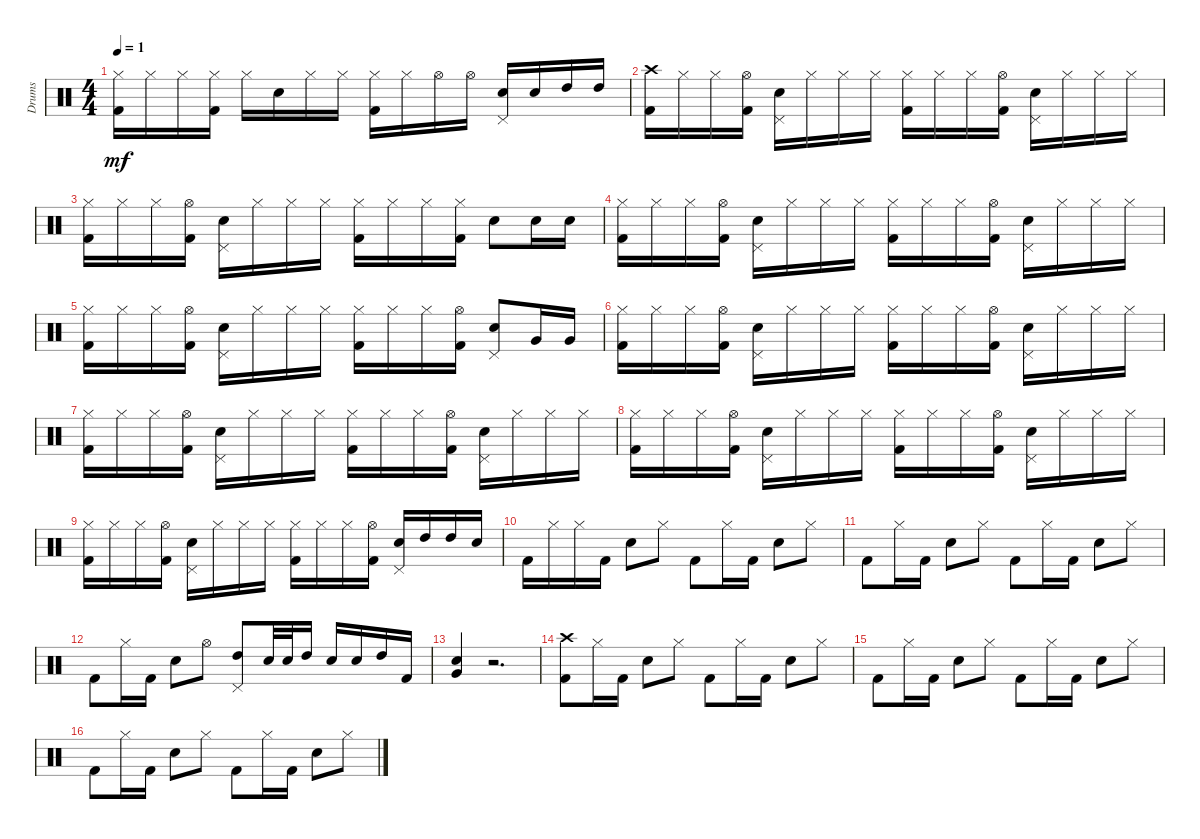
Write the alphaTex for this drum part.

\track ("Drums" "Drums") {instrument percussion}
\staff {score}
\articulation defaults
\ts (4 4)
\tempo 1
\clef neutral
\ks c
("Hi-Hat (closed)" "Kick (hit) 2").16{dy mf} "Hi-Hat (closed)".16 "Hi-Hat (closed)".16 ("Hi-Hat (closed)" "Kick (hit) 2").16 "Hi-Hat (closed)".16 "Snare (hit) 2".16 "Hi-Hat (closed)".16 "Hi-Hat (closed)".16 ("Hi-Hat (closed)" "Kick (hit) 2").16 "Hi-Hat (closed)".16 "Hi-Hat (open)".16 "Hi-Hat (open)".16 ("Snare (hit) 2" "Pedal Hi-Hat (hit)").16 "Snare (hit) 2".16 "High Tom (hit)".16 "High Tom (hit)".16 |
("Kick (hit) 2" "Crash high (hit)").16 "Hi-Hat (closed)".16 "Hi-Hat (closed)".16 ("Kick (hit) 2" "Hi-Hat (open)").16 ("Snare (hit) 2" "Pedal Hi-Hat (hit)").16 "Hi-Hat (closed)".16 "Hi-Hat (closed)".16 "Hi-Hat (closed)".16 ("Hi-Hat (closed)" "Kick (hit) 2").16 "Hi-Hat (closed)".16 "Hi-Hat (closed)".16 ("Hi-Hat (open)" "Kick (hit) 2").16 ("Snare (hit) 2" "Pedal Hi-Hat (hit)").16 "Hi-Hat (closed)".16 "Hi-Hat (closed)".16 "Hi-Hat (closed)".16 |
("Kick (hit) 2" "Hi-Hat (closed)").16 "Hi-Hat (closed)".16 "Hi-Hat (closed)".16 ("Kick (hit) 2" "Hi-Hat (open)").16 ("Snare (hit) 2" "Pedal Hi-Hat (hit)").16 "Hi-Hat (closed)".16 "Hi-Hat (closed)".16 "Hi-Hat (closed)".16 ("Hi-Hat (closed)" "Kick (hit) 2").16 "Hi-Hat (closed)".16 "Hi-Hat (closed)".16 ("Hi-Hat (closed)" "Kick (hit) 2").16 "Snare (hit) 2".8 "Snare (hit) 2".16 "Snare (hit) 2".16 |
("Kick (hit) 2" "Hi-Hat (closed)").16 "Hi-Hat (closed)".16 "Hi-Hat (closed)".16 ("Kick (hit) 2" "Hi-Hat (open)").16 ("Snare (hit) 2" "Pedal Hi-Hat (hit)").16 "Hi-Hat (closed)".16 "Hi-Hat (closed)".16 "Hi-Hat (closed)".16 ("Hi-Hat (closed)" "Kick (hit) 2").16 "Hi-Hat (closed)".16 "Hi-Hat (closed)".16 ("Hi-Hat (open)" "Kick (hit) 2").16 ("Snare (hit) 2" "Pedal Hi-Hat (hit)").16 "Hi-Hat (closed)".16 "Hi-Hat (closed)".16 "Hi-Hat (closed)".16 |
("Kick (hit) 2" "Hi-Hat (closed)").16 "Hi-Hat (closed)".16 "Hi-Hat (closed)".16 ("Kick (hit) 2" "Hi-Hat (open)").16 ("Snare (hit) 2" "Pedal Hi-Hat (hit)").16 "Hi-Hat (closed)".16 "Hi-Hat (closed)".16 "Hi-Hat (closed)".16 ("Hi-Hat (closed)" "Kick (hit) 2").16 "Hi-Hat (closed)".16 "Hi-Hat (closed)".16 ("Hi-Hat (open)" "Kick (hit) 2").16 ("Snare (hit) 2" "Pedal Hi-Hat (hit)").8 "Very Low Tom (hit)".16 "Very Low Tom (hit)".16 |
("Kick (hit) 2" "Hi-Hat (closed)").16 "Hi-Hat (closed)".16 "Hi-Hat (closed)".16 ("Kick (hit) 2" "Hi-Hat (open)").16 ("Snare (hit) 2" "Pedal Hi-Hat (hit)").16 "Hi-Hat (closed)".16 "Hi-Hat (closed)".16 "Hi-Hat (closed)".16 ("Hi-Hat (closed)" "Kick (hit) 2").16 "Hi-Hat (closed)".16 "Hi-Hat (closed)".16 ("Hi-Hat (open)" "Kick (hit) 2").16 ("Snare (hit) 2" "Pedal Hi-Hat (hit)").16 "Hi-Hat (closed)".16 "Hi-Hat (closed)".16 "Hi-Hat (closed)".16 |
("Kick (hit) 2" "Hi-Hat (closed)").16 "Hi-Hat (closed)".16 "Hi-Hat (closed)".16 ("Kick (hit) 2" "Hi-Hat (open)").16 ("Snare (hit) 2" "Pedal Hi-Hat (hit)").16 "Hi-Hat (closed)".16 "Hi-Hat (closed)".16 "Hi-Hat (closed)".16 ("Hi-Hat (closed)" "Kick (hit) 2").16 "Hi-Hat (closed)".16 "Hi-Hat (closed)".16 ("Hi-Hat (open)" "Kick (hit) 2").16 ("Snare (hit) 2" "Pedal Hi-Hat (hit)").16 "Hi-Hat (closed)".16 "Hi-Hat (closed)".16 "Hi-Hat (closed)".16 |
("Kick (hit) 2" "Hi-Hat (closed)").16 "Hi-Hat (closed)".16 "Hi-Hat (closed)".16 ("Kick (hit) 2" "Hi-Hat (open)").16 ("Snare (hit) 2" "Pedal Hi-Hat (hit)").16 "Hi-Hat (closed)".16 "Hi-Hat (closed)".16 "Hi-Hat (closed)".16 ("Hi-Hat (closed)" "Kick (hit) 2").16 "Hi-Hat (closed)".16 "Hi-Hat (closed)".16 ("Hi-Hat (open)" "Kick (hit) 2").16 ("Snare (hit) 2" "Pedal Hi-Hat (hit)").16 "Hi-Hat (closed)".16 "Hi-Hat (closed)".16 "Hi-Hat (closed)".16 |
("Kick (hit) 2" "Hi-Hat (closed)").16 "Hi-Hat (closed)".16 "Hi-Hat (closed)".16 ("Kick (hit) 2" "Hi-Hat (open)").16 ("Snare (hit) 2" "Pedal Hi-Hat (hit)").16 "Hi-Hat (closed)".16 "Hi-Hat (closed)".16 "Hi-Hat (closed)".16 ("Hi-Hat (closed)" "Kick (hit) 2").16 "Hi-Hat (closed)".16 "Hi-Hat (closed)".16 ("Hi-Hat (open)" "Kick (hit) 2").16 ("Snare (hit) 2" "Pedal Hi-Hat (hit)").16 "High Tom (hit)".16 "High Tom (hit)".16 "Snare (hit) 2".16 |
"Kick (hit) 2".16 "Hi-Hat (closed)".16 "Hi-Hat (closed)".16 "Kick (hit) 2".16 "Snare (hit) 2".8 "Hi-Hat (closed)".8 "Kick (hit) 2".8 "Hi-Hat (closed)".16 "Kick (hit) 2".16 "Snare (hit) 2".8 "Hi-Hat (closed)".8 |
"Kick (hit) 2".8 "Hi-Hat (closed)".16 "Kick (hit) 2".16 "Snare (hit) 2".8 "Hi-Hat (closed)".8 "Kick (hit) 2".8 "Hi-Hat (closed)".16 "Kick (hit) 2".16 "Snare (hit) 2".8 "Hi-Hat (closed)".8 |
"Kick (hit) 2".8 "Hi-Hat (closed)".16 "Kick (hit) 2".16 "Snare (hit) 2".8 "Hi-Hat (open)".8 ("Pedal Hi-Hat (hit)" "High Tom (hit)").8 "Snare (hit) 2".32 "Snare (hit) 2".32 "High Tom (hit)".16 "Snare (hit) 2".16 "Snare (hit) 2".16 "High Tom (hit)".16 "Kick (hit) 2".16 |
("Very Low Tom (hit)" "Snare (hit) 2").4 r.2{d} |
("Kick (hit) 2" "Crash high (hit)").8 "Hi-Hat (closed)".16 "Kick (hit) 2".16 "Snare (hit) 2".8 "Hi-Hat (closed)".8 "Kick (hit) 2".8 "Hi-Hat (closed)".16 "Kick (hit) 2".16 "Snare (hit) 2".8 "Hi-Hat (closed)".8 |
"Kick (hit) 2".8 "Hi-Hat (closed)".16 "Kick (hit) 2".16 "Snare (hit) 2".8 "Hi-Hat (closed)".8 "Kick (hit) 2".8 "Hi-Hat (closed)".16 "Kick (hit) 2".16 "Snare (hit) 2".8 "Hi-Hat (closed)".8 |
"Kick (hit) 2".8 "Hi-Hat (closed)".16 "Kick (hit) 2".16 "Snare (hit) 2".8 "Hi-Hat (closed)".8 "Kick (hit) 2".8 "Hi-Hat (closed)".16 "Kick (hit) 2".16 "Snare (hit) 2".8 "Hi-Hat (closed)".8
